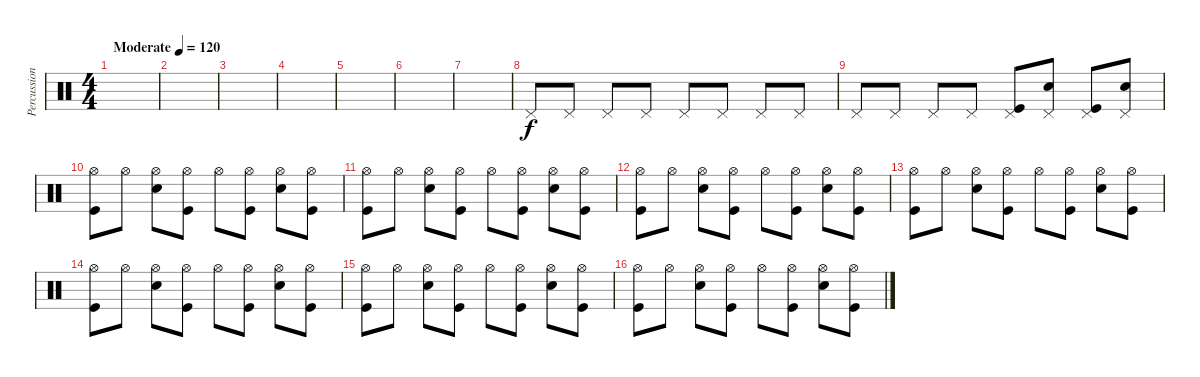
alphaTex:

\track ("Percussion" "Percussion") {instrument percussion}
\staff {score}
\articulation defaults
\ts (4 4)
\tempo (120 "Moderate")
\clef neutral
\ks c
|
|
|
|
|
|
|
"Pedal Hi-Hat (hit)".8 "Pedal Hi-Hat (hit)".8 "Pedal Hi-Hat (hit)".8 "Pedal Hi-Hat (hit)".8 "Pedal Hi-Hat (hit)".8 "Pedal Hi-Hat (hit)".8 "Pedal Hi-Hat (hit)".8 "Pedal Hi-Hat (hit)".8 |
"Pedal Hi-Hat (hit)".8 "Pedal Hi-Hat (hit)".8 "Pedal Hi-Hat (hit)".8 "Pedal Hi-Hat (hit)".8 ("Kick (hit)" "Pedal Hi-Hat (hit)").8 ("Snare (hit) 2" "Pedal Hi-Hat (hit)").8 ("Kick (hit)" "Pedal Hi-Hat (hit)").8 ("Snare (hit) 2" "Pedal Hi-Hat (hit)").8 |
("Hi-Hat (open)" "Kick (hit)").8 "Hi-Hat (open)".8 ("Hi-Hat (open)" "Snare (hit) 2").8 ("Hi-Hat (open)" "Kick (hit)").8 "Hi-Hat (open)".8 ("Hi-Hat (open)" "Kick (hit)").8 ("Hi-Hat (open)" "Snare (hit) 2").8 ("Hi-Hat (open)" "Kick (hit)").8 |
("Hi-Hat (open)" "Kick (hit)").8 "Hi-Hat (open)".8 ("Hi-Hat (open)" "Snare (hit) 2").8 ("Hi-Hat (open)" "Kick (hit)").8 "Hi-Hat (open)".8 ("Hi-Hat (open)" "Kick (hit)").8 ("Hi-Hat (open)" "Snare (hit) 2").8 ("Hi-Hat (open)" "Kick (hit)").8 |
("Hi-Hat (open)" "Kick (hit)").8 "Hi-Hat (open)".8 ("Hi-Hat (open)" "Snare (hit) 2").8 ("Hi-Hat (open)" "Kick (hit)").8 "Hi-Hat (open)".8 ("Hi-Hat (open)" "Kick (hit)").8 ("Hi-Hat (open)" "Snare (hit) 2").8 ("Hi-Hat (open)" "Kick (hit)").8 |
("Hi-Hat (open)" "Kick (hit)").8 "Hi-Hat (open)".8 ("Hi-Hat (open)" "Snare (hit) 2").8 ("Hi-Hat (open)" "Kick (hit)").8 "Hi-Hat (open)".8 ("Hi-Hat (open)" "Kick (hit)").8 ("Hi-Hat (open)" "Snare (hit) 2").8 ("Hi-Hat (open)" "Kick (hit)").8 |
("Hi-Hat (open)" "Kick (hit)").8 "Hi-Hat (open)".8 ("Hi-Hat (open)" "Snare (hit) 2").8 ("Hi-Hat (open)" "Kick (hit)").8 "Hi-Hat (open)".8 ("Hi-Hat (open)" "Kick (hit)").8 ("Hi-Hat (open)" "Snare (hit) 2").8 ("Hi-Hat (open)" "Kick (hit)").8 |
("Hi-Hat (open)" "Kick (hit)").8 "Hi-Hat (open)".8 ("Hi-Hat (open)" "Snare (hit) 2").8 ("Hi-Hat (open)" "Kick (hit)").8 "Hi-Hat (open)".8 ("Hi-Hat (open)" "Kick (hit)").8 ("Hi-Hat (open)" "Snare (hit) 2").8 ("Hi-Hat (open)" "Kick (hit)").8 |
("Hi-Hat (open)" "Kick (hit)").8 "Hi-Hat (open)".8 ("Hi-Hat (open)" "Snare (hit) 2").8 ("Hi-Hat (open)" "Kick (hit)").8 "Hi-Hat (open)".8 ("Hi-Hat (open)" "Kick (hit)").8 ("Hi-Hat (open)" "Snare (hit) 2").8 ("Hi-Hat (open)" "Kick (hit)").8
